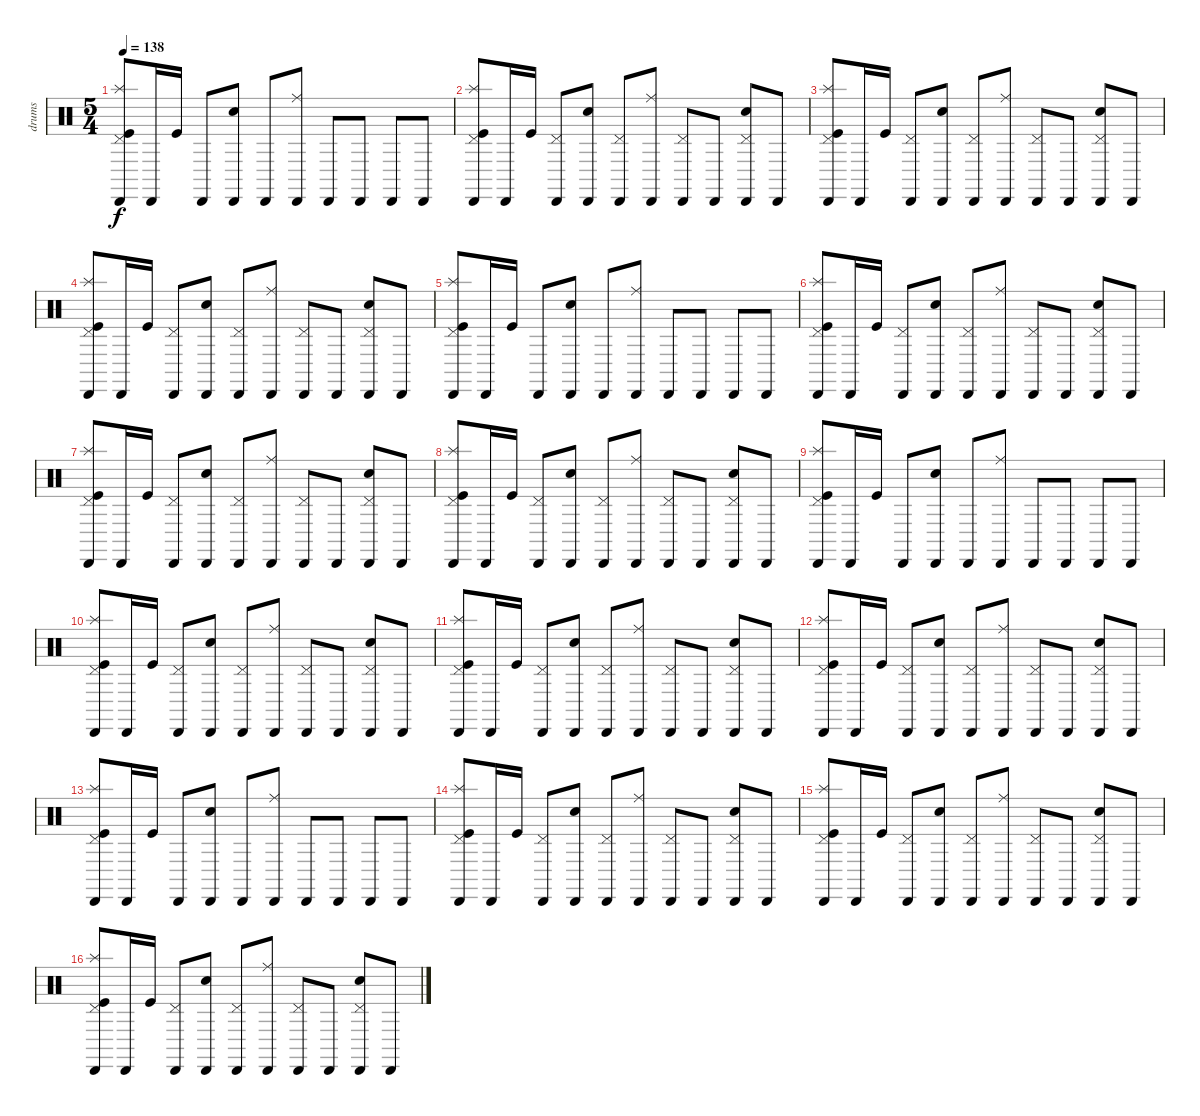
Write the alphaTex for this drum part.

\track ("drums" "drums") {instrument percussion}
\staff {score}
\articulation defaults
\ts (5 4)
\tempo 138
\clef neutral
\ks c
("Pedal Hi-Hat (hit)" "Splash (hit)" "Kick (hit)" "Cabasa (hit)").8{dy f} "Cabasa (hit)".16 "Kick (hit)".16 "Cabasa (hit)".8 ("Snare (hit) 2" "Cabasa (hit)").8 "Cabasa (hit)".8 ("Ride (middle)" "Cabasa (hit)").8 "Cabasa (hit)".8 "Cabasa (hit)".8 "Cabasa (hit)".8 "Cabasa (hit)".8 |
("Cabasa (hit)" "Kick (hit)" "Pedal Hi-Hat (hit)" "Splash (hit)").8 "Cabasa (hit)".16 "Kick (hit)".16 ("Pedal Hi-Hat (hit)" "Cabasa (hit)").8 ("Snare (hit) 2" "Cabasa (hit)").8 ("Pedal Hi-Hat (hit)" "Cabasa (hit)").8 ("Ride (middle)" "Cabasa (hit)").8 ("Pedal Hi-Hat (hit)" "Cabasa (hit)").8 "Cabasa (hit)".8 ("Snare (hit) 2" "Pedal Hi-Hat (hit)" "Cabasa (hit)").8 "Cabasa (hit)".8 |
("Pedal Hi-Hat (hit)" "Splash (hit)" "Kick (hit)" "Cabasa (hit)").8 "Cabasa (hit)".16 "Kick (hit)".16 ("Pedal Hi-Hat (hit)" "Cabasa (hit)").8 ("Snare (hit) 2" "Cabasa (hit)").8 ("Pedal Hi-Hat (hit)" "Cabasa (hit)").8 ("Ride (middle)" "Cabasa (hit)").8 ("Pedal Hi-Hat (hit)" "Cabasa (hit)").8 "Cabasa (hit)".8 ("Snare (hit) 2" "Pedal Hi-Hat (hit)" "Cabasa (hit)").8 "Cabasa (hit)".8 |
("Kick (hit)" "Pedal Hi-Hat (hit)" "Splash (hit)" "Cabasa (hit)").8 "Cabasa (hit)".16 "Kick (hit)".16 ("Pedal Hi-Hat (hit)" "Cabasa (hit)").8 ("Snare (hit) 2" "Cabasa (hit)").8 ("Pedal Hi-Hat (hit)" "Cabasa (hit)").8 ("Ride (middle)" "Cabasa (hit)").8 ("Pedal Hi-Hat (hit)" "Cabasa (hit)").8 "Cabasa (hit)".8 ("Snare (hit) 2" "Pedal Hi-Hat (hit)" "Cabasa (hit)").8 "Cabasa (hit)".8 |
("Pedal Hi-Hat (hit)" "Splash (hit)" "Kick (hit)" "Cabasa (hit)").8 "Cabasa (hit)".16 "Kick (hit)".16 "Cabasa (hit)".8 ("Snare (hit) 2" "Cabasa (hit)").8 "Cabasa (hit)".8 ("Ride (middle)" "Cabasa (hit)").8 "Cabasa (hit)".8 "Cabasa (hit)".8 "Cabasa (hit)".8 "Cabasa (hit)".8 |
("Kick (hit)" "Pedal Hi-Hat (hit)" "Splash (hit)" "Cabasa (hit)").8 "Cabasa (hit)".16 "Kick (hit)".16 ("Pedal Hi-Hat (hit)" "Cabasa (hit)").8 ("Snare (hit) 2" "Cabasa (hit)").8 ("Pedal Hi-Hat (hit)" "Cabasa (hit)").8 ("Ride (middle)" "Cabasa (hit)").8 ("Pedal Hi-Hat (hit)" "Cabasa (hit)").8 "Cabasa (hit)".8 ("Snare (hit) 2" "Pedal Hi-Hat (hit)" "Cabasa (hit)").8 "Cabasa (hit)".8 |
("Pedal Hi-Hat (hit)" "Splash (hit)" "Kick (hit)" "Cabasa (hit)").8 "Cabasa (hit)".16 "Kick (hit)".16 ("Pedal Hi-Hat (hit)" "Cabasa (hit)").8 ("Snare (hit) 2" "Cabasa (hit)").8 ("Pedal Hi-Hat (hit)" "Cabasa (hit)").8 ("Ride (middle)" "Cabasa (hit)").8 ("Pedal Hi-Hat (hit)" "Cabasa (hit)").8 "Cabasa (hit)".8 ("Snare (hit) 2" "Pedal Hi-Hat (hit)" "Cabasa (hit)").8 "Cabasa (hit)".8 |
("Kick (hit)" "Pedal Hi-Hat (hit)" "Splash (hit)" "Cabasa (hit)").8 "Cabasa (hit)".16 "Kick (hit)".16 ("Pedal Hi-Hat (hit)" "Cabasa (hit)").8 ("Snare (hit) 2" "Cabasa (hit)").8 ("Pedal Hi-Hat (hit)" "Cabasa (hit)").8 ("Ride (middle)" "Cabasa (hit)").8 ("Pedal Hi-Hat (hit)" "Cabasa (hit)").8 "Cabasa (hit)".8 ("Snare (hit) 2" "Pedal Hi-Hat (hit)" "Cabasa (hit)").8 "Cabasa (hit)".8 |
("Pedal Hi-Hat (hit)" "Splash (hit)" "Kick (hit)" "Cabasa (hit)").8 "Cabasa (hit)".16 "Kick (hit)".16 "Cabasa (hit)".8 ("Snare (hit) 2" "Cabasa (hit)").8 "Cabasa (hit)".8 ("Ride (middle)" "Cabasa (hit)").8 "Cabasa (hit)".8 "Cabasa (hit)".8 "Cabasa (hit)".8 "Cabasa (hit)".8 |
("Kick (hit)" "Pedal Hi-Hat (hit)" "Splash (hit)" "Cabasa (hit)").8 "Cabasa (hit)".16 "Kick (hit)".16 ("Pedal Hi-Hat (hit)" "Cabasa (hit)").8 ("Snare (hit) 2" "Cabasa (hit)").8 ("Pedal Hi-Hat (hit)" "Cabasa (hit)").8 ("Ride (middle)" "Cabasa (hit)").8 ("Pedal Hi-Hat (hit)" "Cabasa (hit)").8 "Cabasa (hit)".8 ("Snare (hit) 2" "Pedal Hi-Hat (hit)" "Cabasa (hit)").8 "Cabasa (hit)".8 |
("Pedal Hi-Hat (hit)" "Splash (hit)" "Kick (hit)" "Cabasa (hit)").8 "Cabasa (hit)".16 "Kick (hit)".16 ("Pedal Hi-Hat (hit)" "Cabasa (hit)").8 ("Snare (hit) 2" "Cabasa (hit)").8 ("Pedal Hi-Hat (hit)" "Cabasa (hit)").8 ("Ride (middle)" "Cabasa (hit)").8 ("Pedal Hi-Hat (hit)" "Cabasa (hit)").8 "Cabasa (hit)".8 ("Snare (hit) 2" "Pedal Hi-Hat (hit)" "Cabasa (hit)").8 "Cabasa (hit)".8 |
("Kick (hit)" "Pedal Hi-Hat (hit)" "Splash (hit)" "Cabasa (hit)").8 "Cabasa (hit)".16 "Kick (hit)".16 ("Pedal Hi-Hat (hit)" "Cabasa (hit)").8 ("Snare (hit) 2" "Cabasa (hit)").8 ("Pedal Hi-Hat (hit)" "Cabasa (hit)").8 ("Ride (middle)" "Cabasa (hit)").8 ("Pedal Hi-Hat (hit)" "Cabasa (hit)").8 "Cabasa (hit)".8 ("Snare (hit) 2" "Pedal Hi-Hat (hit)" "Cabasa (hit)").8 "Cabasa (hit)".8 |
("Pedal Hi-Hat (hit)" "Splash (hit)" "Kick (hit)" "Cabasa (hit)").8 "Cabasa (hit)".16 "Kick (hit)".16 "Cabasa (hit)".8 ("Snare (hit) 2" "Cabasa (hit)").8 "Cabasa (hit)".8 ("Ride (middle)" "Cabasa (hit)").8 "Cabasa (hit)".8 "Cabasa (hit)".8 "Cabasa (hit)".8 "Cabasa (hit)".8 |
("Kick (hit)" "Pedal Hi-Hat (hit)" "Splash (hit)" "Cabasa (hit)").8 "Cabasa (hit)".16 "Kick (hit)".16 ("Pedal Hi-Hat (hit)" "Cabasa (hit)").8 ("Snare (hit) 2" "Cabasa (hit)").8 ("Pedal Hi-Hat (hit)" "Cabasa (hit)").8 ("Ride (middle)" "Cabasa (hit)").8 ("Pedal Hi-Hat (hit)" "Cabasa (hit)").8 "Cabasa (hit)".8 ("Snare (hit) 2" "Pedal Hi-Hat (hit)" "Cabasa (hit)").8 "Cabasa (hit)".8 |
("Pedal Hi-Hat (hit)" "Splash (hit)" "Kick (hit)" "Cabasa (hit)").8 "Cabasa (hit)".16 "Kick (hit)".16 ("Pedal Hi-Hat (hit)" "Cabasa (hit)").8 ("Snare (hit) 2" "Cabasa (hit)").8 ("Pedal Hi-Hat (hit)" "Cabasa (hit)").8 ("Ride (middle)" "Cabasa (hit)").8 ("Pedal Hi-Hat (hit)" "Cabasa (hit)").8 "Cabasa (hit)".8 ("Snare (hit) 2" "Pedal Hi-Hat (hit)" "Cabasa (hit)").8 "Cabasa (hit)".8 |
("Kick (hit)" "Pedal Hi-Hat (hit)" "Splash (hit)" "Cabasa (hit)").8 "Cabasa (hit)".16 "Kick (hit)".16 ("Pedal Hi-Hat (hit)" "Cabasa (hit)").8 ("Snare (hit) 2" "Cabasa (hit)").8 ("Pedal Hi-Hat (hit)" "Cabasa (hit)").8 ("Ride (middle)" "Cabasa (hit)").8 ("Pedal Hi-Hat (hit)" "Cabasa (hit)").8 "Cabasa (hit)".8 ("Snare (hit) 2" "Pedal Hi-Hat (hit)" "Cabasa (hit)").8 "Cabasa (hit)".8
